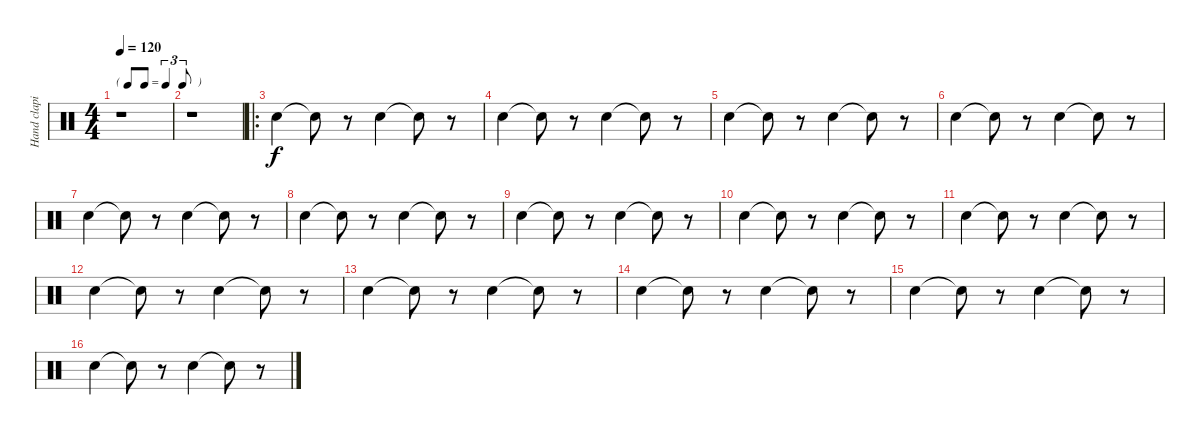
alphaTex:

\track ("Hand claping" "Hand clapi") {instrument percussion}
\staff {score}
\articulation defaults
\ts (4 4)
\tf triplet8th
\tempo 120
\clef neutral
\ks c
r.1{dy f} |
r.1 |
\ro "Hand Clap (hit)".4 "Hand Clap (hit)"{t}.8
r.8 "Hand Clap (hit)".4 "Hand Clap (hit)"{t}.8 r.8 |
"Hand Clap (hit)".4 "Hand Clap (hit)"{t}.8 r.8 "Hand Clap (hit)".4 "Hand Clap (hit)"{t}.8 r.8 |
"Hand Clap (hit)".4 "Hand Clap (hit)"{t}.8 r.8 "Hand Clap (hit)".4 "Hand Clap (hit)"{t}.8 r.8 |
"Hand Clap (hit)".4 "Hand Clap (hit)"{t}.8 r.8 "Hand Clap (hit)".4 "Hand Clap (hit)"{t}.8 r.8 |
"Hand Clap (hit)".4 "Hand Clap (hit)"{t}.8 r.8 "Hand Clap (hit)".4 "Hand Clap (hit)"{t}.8 r.8 |
"Hand Clap (hit)".4 "Hand Clap (hit)"{t}.8 r.8 "Hand Clap (hit)".4 "Hand Clap (hit)"{t}.8 r.8 |
"Hand Clap (hit)".4 "Hand Clap (hit)"{t}.8 r.8 "Hand Clap (hit)".4 "Hand Clap (hit)"{t}.8 r.8 |
"Hand Clap (hit)".4 "Hand Clap (hit)"{t}.8 r.8 "Hand Clap (hit)".4 "Hand Clap (hit)"{t}.8 r.8 |
"Hand Clap (hit)".4 "Hand Clap (hit)"{t}.8 r.8 "Hand Clap (hit)".4 "Hand Clap (hit)"{t}.8 r.8 |
"Hand Clap (hit)".4 "Hand Clap (hit)"{t}.8 r.8 "Hand Clap (hit)".4 "Hand Clap (hit)"{t}.8 r.8 |
"Hand Clap (hit)".4 "Hand Clap (hit)"{t}.8 r.8 "Hand Clap (hit)".4 "Hand Clap (hit)"{t}.8 r.8 |
"Hand Clap (hit)".4 "Hand Clap (hit)"{t}.8 r.8 "Hand Clap (hit)".4 "Hand Clap (hit)"{t}.8 r.8 |
"Hand Clap (hit)".4 "Hand Clap (hit)"{t}.8 r.8 "Hand Clap (hit)".4 "Hand Clap (hit)"{t}.8 r.8 |
"Hand Clap (hit)".4 "Hand Clap (hit)"{t}.8 r.8 "Hand Clap (hit)".4 "Hand Clap (hit)"{t}.8 r.8
